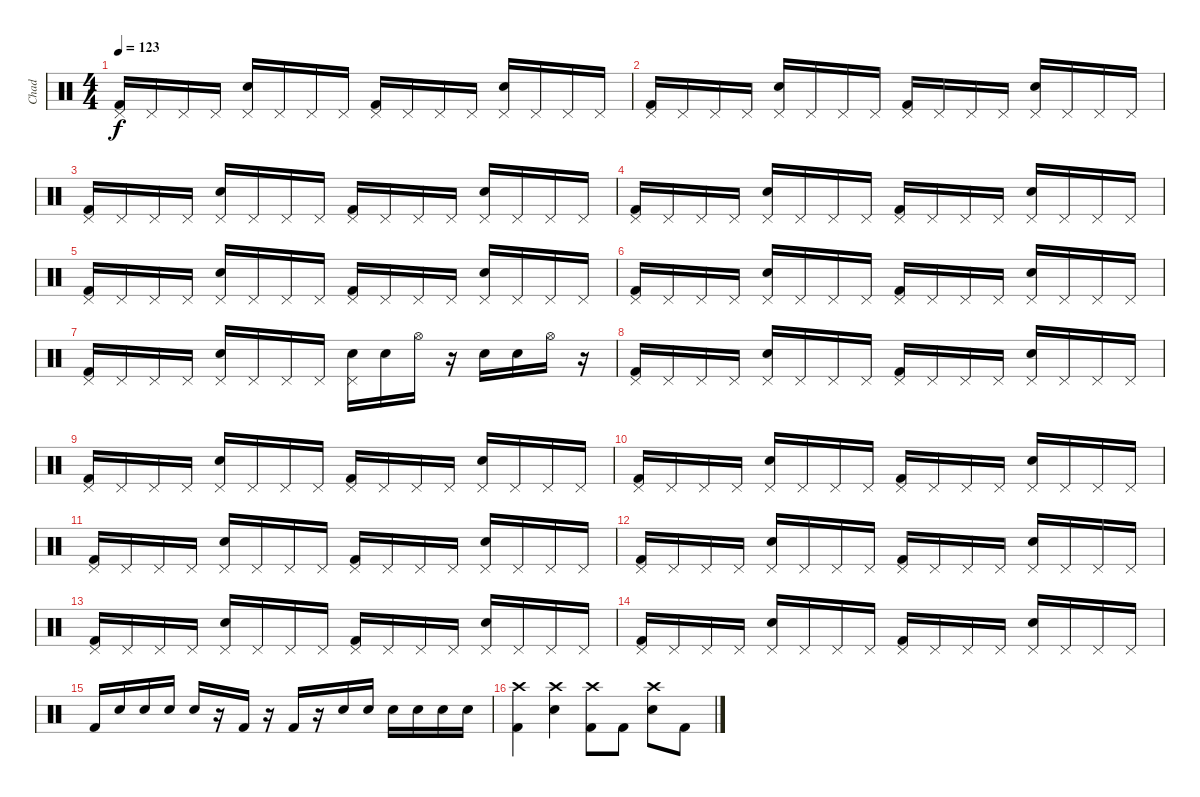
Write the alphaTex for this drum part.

\track ("Chad" "Chad") {instrument percussion}
\staff {score}
\articulation defaults
\ts (4 4)
\tempo 123
\clef neutral
\ks c
("Pedal Hi-Hat (hit)" "Kick (hit) 2").16{dy f} "Pedal Hi-Hat (hit)".16 "Pedal Hi-Hat (hit)".16 "Pedal Hi-Hat (hit)".16 ("Pedal Hi-Hat (hit)" "Electric Snare (hit)").16 "Pedal Hi-Hat (hit)".16 "Pedal Hi-Hat (hit)".16 "Pedal Hi-Hat (hit)".16 ("Pedal Hi-Hat (hit)" "Kick (hit) 2").16 "Pedal Hi-Hat (hit)".16 "Pedal Hi-Hat (hit)".16 "Pedal Hi-Hat (hit)".16 ("Pedal Hi-Hat (hit)" "Electric Snare (hit)").16 "Pedal Hi-Hat (hit)".16 "Pedal Hi-Hat (hit)".16 "Pedal Hi-Hat (hit)".16 |
("Pedal Hi-Hat (hit)" "Kick (hit) 2").16 "Pedal Hi-Hat (hit)".16 "Pedal Hi-Hat (hit)".16 "Pedal Hi-Hat (hit)".16 ("Pedal Hi-Hat (hit)" "Electric Snare (hit)").16 "Pedal Hi-Hat (hit)".16 "Pedal Hi-Hat (hit)".16 "Pedal Hi-Hat (hit)".16 ("Pedal Hi-Hat (hit)" "Kick (hit) 2").16 "Pedal Hi-Hat (hit)".16 "Pedal Hi-Hat (hit)".16 "Pedal Hi-Hat (hit)".16 ("Pedal Hi-Hat (hit)" "Electric Snare (hit)").16 "Pedal Hi-Hat (hit)".16 "Pedal Hi-Hat (hit)".16 "Pedal Hi-Hat (hit)".16 |
("Pedal Hi-Hat (hit)" "Kick (hit) 2").16 "Pedal Hi-Hat (hit)".16 "Pedal Hi-Hat (hit)".16 "Pedal Hi-Hat (hit)".16 ("Pedal Hi-Hat (hit)" "Electric Snare (hit)").16 "Pedal Hi-Hat (hit)".16 "Pedal Hi-Hat (hit)".16 "Pedal Hi-Hat (hit)".16 ("Pedal Hi-Hat (hit)" "Kick (hit) 2").16 "Pedal Hi-Hat (hit)".16 "Pedal Hi-Hat (hit)".16 "Pedal Hi-Hat (hit)".16 ("Pedal Hi-Hat (hit)" "Electric Snare (hit)").16 "Pedal Hi-Hat (hit)".16 "Pedal Hi-Hat (hit)".16 "Pedal Hi-Hat (hit)".16 |
("Pedal Hi-Hat (hit)" "Kick (hit) 2").16 "Pedal Hi-Hat (hit)".16 "Pedal Hi-Hat (hit)".16 "Pedal Hi-Hat (hit)".16 ("Pedal Hi-Hat (hit)" "Electric Snare (hit)").16 "Pedal Hi-Hat (hit)".16 "Pedal Hi-Hat (hit)".16 "Pedal Hi-Hat (hit)".16 ("Pedal Hi-Hat (hit)" "Kick (hit) 2").16 "Pedal Hi-Hat (hit)".16 "Pedal Hi-Hat (hit)".16 "Pedal Hi-Hat (hit)".16 ("Pedal Hi-Hat (hit)" "Electric Snare (hit)").16 "Pedal Hi-Hat (hit)".16 "Pedal Hi-Hat (hit)".16 "Pedal Hi-Hat (hit)".16 |
("Pedal Hi-Hat (hit)" "Kick (hit) 2").16 "Pedal Hi-Hat (hit)".16 "Pedal Hi-Hat (hit)".16 "Pedal Hi-Hat (hit)".16 ("Pedal Hi-Hat (hit)" "Electric Snare (hit)").16 "Pedal Hi-Hat (hit)".16 "Pedal Hi-Hat (hit)".16 "Pedal Hi-Hat (hit)".16 ("Pedal Hi-Hat (hit)" "Kick (hit) 2").16 "Pedal Hi-Hat (hit)".16 "Pedal Hi-Hat (hit)".16 "Pedal Hi-Hat (hit)".16 ("Pedal Hi-Hat (hit)" "Electric Snare (hit)").16 "Pedal Hi-Hat (hit)".16 "Pedal Hi-Hat (hit)".16 "Pedal Hi-Hat (hit)".16 |
("Pedal Hi-Hat (hit)" "Kick (hit) 2").16 "Pedal Hi-Hat (hit)".16 "Pedal Hi-Hat (hit)".16 "Pedal Hi-Hat (hit)".16 ("Pedal Hi-Hat (hit)" "Electric Snare (hit)").16 "Pedal Hi-Hat (hit)".16 "Pedal Hi-Hat (hit)".16 "Pedal Hi-Hat (hit)".16 ("Pedal Hi-Hat (hit)" "Kick (hit) 2").16 "Pedal Hi-Hat (hit)".16 "Pedal Hi-Hat (hit)".16 "Pedal Hi-Hat (hit)".16 ("Pedal Hi-Hat (hit)" "Electric Snare (hit)").16 "Pedal Hi-Hat (hit)".16 "Pedal Hi-Hat (hit)".16 "Pedal Hi-Hat (hit)".16 |
("Pedal Hi-Hat (hit)" "Kick (hit) 2").16 "Pedal Hi-Hat (hit)".16 "Pedal Hi-Hat (hit)".16 "Pedal Hi-Hat (hit)".16 ("Pedal Hi-Hat (hit)" "Electric Snare (hit)").16 "Pedal Hi-Hat (hit)".16 "Pedal Hi-Hat (hit)".16 "Pedal Hi-Hat (hit)".16 ("Pedal Hi-Hat (hit)" "Electric Snare (hit)").16 "Electric Snare (hit)".16 "Hi-Hat (open)".16 r.16 "Electric Snare (hit)".16 "Electric Snare (hit)".16 "Hi-Hat (open)".16 r.16 |
("Pedal Hi-Hat (hit)" "Kick (hit) 2").16 "Pedal Hi-Hat (hit)".16 "Pedal Hi-Hat (hit)".16 "Pedal Hi-Hat (hit)".16 ("Pedal Hi-Hat (hit)" "Electric Snare (hit)").16 "Pedal Hi-Hat (hit)".16 "Pedal Hi-Hat (hit)".16 "Pedal Hi-Hat (hit)".16 ("Pedal Hi-Hat (hit)" "Kick (hit) 2").16 "Pedal Hi-Hat (hit)".16 "Pedal Hi-Hat (hit)".16 "Pedal Hi-Hat (hit)".16 ("Pedal Hi-Hat (hit)" "Electric Snare (hit)").16 "Pedal Hi-Hat (hit)".16 "Pedal Hi-Hat (hit)".16 "Pedal Hi-Hat (hit)".16 |
("Pedal Hi-Hat (hit)" "Kick (hit) 2").16 "Pedal Hi-Hat (hit)".16 "Pedal Hi-Hat (hit)".16 "Pedal Hi-Hat (hit)".16 ("Pedal Hi-Hat (hit)" "Electric Snare (hit)").16 "Pedal Hi-Hat (hit)".16 "Pedal Hi-Hat (hit)".16 "Pedal Hi-Hat (hit)".16 ("Pedal Hi-Hat (hit)" "Kick (hit) 2").16 "Pedal Hi-Hat (hit)".16 "Pedal Hi-Hat (hit)".16 "Pedal Hi-Hat (hit)".16 ("Pedal Hi-Hat (hit)" "Electric Snare (hit)").16 "Pedal Hi-Hat (hit)".16 "Pedal Hi-Hat (hit)".16 "Pedal Hi-Hat (hit)".16 |
("Pedal Hi-Hat (hit)" "Kick (hit) 2").16 "Pedal Hi-Hat (hit)".16 "Pedal Hi-Hat (hit)".16 "Pedal Hi-Hat (hit)".16 ("Pedal Hi-Hat (hit)" "Electric Snare (hit)").16 "Pedal Hi-Hat (hit)".16 "Pedal Hi-Hat (hit)".16 "Pedal Hi-Hat (hit)".16 ("Pedal Hi-Hat (hit)" "Kick (hit) 2").16 "Pedal Hi-Hat (hit)".16 "Pedal Hi-Hat (hit)".16 "Pedal Hi-Hat (hit)".16 ("Pedal Hi-Hat (hit)" "Electric Snare (hit)").16 "Pedal Hi-Hat (hit)".16 "Pedal Hi-Hat (hit)".16 "Pedal Hi-Hat (hit)".16 |
("Pedal Hi-Hat (hit)" "Kick (hit) 2").16 "Pedal Hi-Hat (hit)".16 "Pedal Hi-Hat (hit)".16 "Pedal Hi-Hat (hit)".16 ("Pedal Hi-Hat (hit)" "Electric Snare (hit)").16 "Pedal Hi-Hat (hit)".16 "Pedal Hi-Hat (hit)".16 "Pedal Hi-Hat (hit)".16 ("Pedal Hi-Hat (hit)" "Kick (hit) 2").16 "Pedal Hi-Hat (hit)".16 "Pedal Hi-Hat (hit)".16 "Pedal Hi-Hat (hit)".16 ("Pedal Hi-Hat (hit)" "Electric Snare (hit)").16 "Pedal Hi-Hat (hit)".16 "Pedal Hi-Hat (hit)".16 "Pedal Hi-Hat (hit)".16 |
("Pedal Hi-Hat (hit)" "Kick (hit) 2").16 "Pedal Hi-Hat (hit)".16 "Pedal Hi-Hat (hit)".16 "Pedal Hi-Hat (hit)".16 ("Pedal Hi-Hat (hit)" "Electric Snare (hit)").16 "Pedal Hi-Hat (hit)".16 "Pedal Hi-Hat (hit)".16 "Pedal Hi-Hat (hit)".16 ("Pedal Hi-Hat (hit)" "Kick (hit) 2").16 "Pedal Hi-Hat (hit)".16 "Pedal Hi-Hat (hit)".16 "Pedal Hi-Hat (hit)".16 ("Pedal Hi-Hat (hit)" "Electric Snare (hit)").16 "Pedal Hi-Hat (hit)".16 "Pedal Hi-Hat (hit)".16 "Pedal Hi-Hat (hit)".16 |
("Pedal Hi-Hat (hit)" "Kick (hit) 2").16 "Pedal Hi-Hat (hit)".16 "Pedal Hi-Hat (hit)".16 "Pedal Hi-Hat (hit)".16 ("Pedal Hi-Hat (hit)" "Electric Snare (hit)").16 "Pedal Hi-Hat (hit)".16 "Pedal Hi-Hat (hit)".16 "Pedal Hi-Hat (hit)".16 ("Pedal Hi-Hat (hit)" "Kick (hit) 2").16 "Pedal Hi-Hat (hit)".16 "Pedal Hi-Hat (hit)".16 "Pedal Hi-Hat (hit)".16 ("Pedal Hi-Hat (hit)" "Electric Snare (hit)").16 "Pedal Hi-Hat (hit)".16 "Pedal Hi-Hat (hit)".16 "Pedal Hi-Hat (hit)".16 |
("Pedal Hi-Hat (hit)" "Kick (hit) 2").16 "Pedal Hi-Hat (hit)".16 "Pedal Hi-Hat (hit)".16 "Pedal Hi-Hat (hit)".16 ("Pedal Hi-Hat (hit)" "Electric Snare (hit)").16 "Pedal Hi-Hat (hit)".16 "Pedal Hi-Hat (hit)".16 "Pedal Hi-Hat (hit)".16 ("Pedal Hi-Hat (hit)" "Kick (hit) 2").16 "Pedal Hi-Hat (hit)".16 "Pedal Hi-Hat (hit)".16 "Pedal Hi-Hat (hit)".16 ("Pedal Hi-Hat (hit)" "Electric Snare (hit)").16 "Pedal Hi-Hat (hit)".16 "Pedal Hi-Hat (hit)".16 "Pedal Hi-Hat (hit)".16 |
"Kick (hit) 2".16 "Electric Snare (hit)".16 "Electric Snare (hit)".16 "Electric Snare (hit)".16 "Electric Snare (hit)".16 r.16 "Kick (hit) 2".16 r.16 "Kick (hit) 2".16 r.16 "Electric Snare (hit)".16 "Electric Snare (hit)".16 "Electric Snare (hit)".16 "Electric Snare (hit)".16 "Electric Snare (hit)".16 "Electric Snare (hit)".16 |
("Crash high (hit)" "Kick (hit) 2").4 ("Crash high (hit)" "Electric Snare (hit)").4 ("Crash high (hit)" "Kick (hit) 2").8 "Kick (hit) 2".8 ("Crash high (hit)" "Electric Snare (hit)").8 "Kick (hit) 2".8
